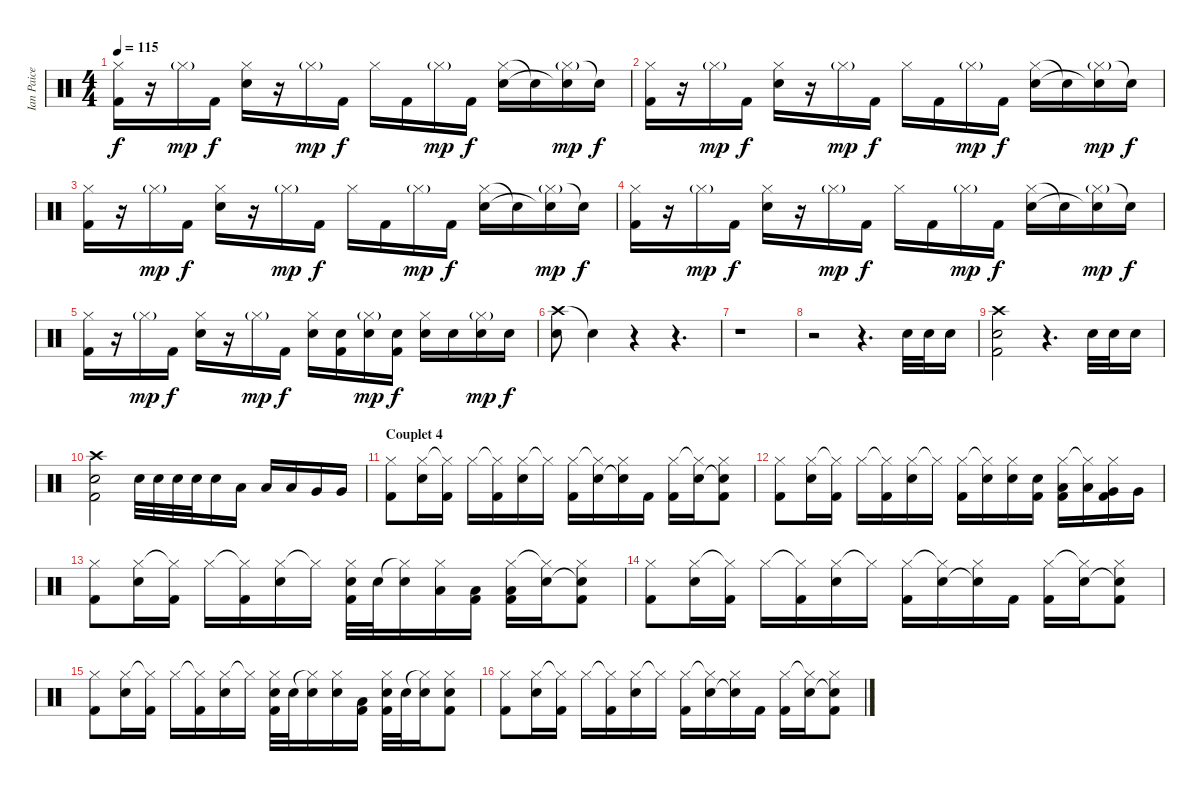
\track ("Ian Paice" "Ian Paice") {instrument percussion}
\staff {score}
\articulation defaults
\ts (4 4)
\tempo 115
\clef neutral
\ks c
("Hi-Hat (closed)" "Kick (hit) 2").16{dy f} r.16 "Hi-Hat (closed)"{g}.16{dy mp} "Kick (hit) 2".16{dy f} ("Hi-Hat (closed)" "Snare (hit) 2").16 r.16 "Hi-Hat (closed)"{g}.16{dy mp} "Kick (hit) 2".16{dy f} "Hi-Hat (closed)".16 "Kick (hit) 2".16 "Hi-Hat (closed)"{g}.16{dy mp} "Kick (hit) 2".16{dy f} ("Hi-Hat (closed)" "Snare (hit) 2").16 "Snare (hit) 2"{t}.16 ("Hi-Hat (closed)"{g} "Snare (hit) 2"{t}).16{dy mp} "Snare (hit) 2"{t}.16{dy f} |
("Hi-Hat (closed)" "Kick (hit) 2").16 r.16 "Hi-Hat (closed)"{g}.16{dy mp} "Kick (hit) 2".16{dy f} ("Hi-Hat (closed)" "Snare (hit) 2").16 r.16 "Hi-Hat (closed)"{g}.16{dy mp} "Kick (hit) 2".16{dy f} "Hi-Hat (closed)".16 "Kick (hit) 2".16 "Hi-Hat (closed)"{g}.16{dy mp} "Kick (hit) 2".16{dy f} ("Hi-Hat (closed)" "Snare (hit) 2").16 "Snare (hit) 2"{t}.16 ("Hi-Hat (closed)"{g} "Snare (hit) 2"{t}).16{dy mp} "Snare (hit) 2"{t}.16{dy f} |
("Hi-Hat (closed)" "Kick (hit) 2").16 r.16 "Hi-Hat (closed)"{g}.16{dy mp} "Kick (hit) 2".16{dy f} ("Hi-Hat (closed)" "Snare (hit) 2").16 r.16 "Hi-Hat (closed)"{g}.16{dy mp} "Kick (hit) 2".16{dy f} "Hi-Hat (closed)".16 "Kick (hit) 2".16 "Hi-Hat (closed)"{g}.16{dy mp} "Kick (hit) 2".16{dy f} ("Hi-Hat (closed)" "Snare (hit) 2").16 "Snare (hit) 2"{t}.16 ("Hi-Hat (closed)"{g} "Snare (hit) 2"{t}).16{dy mp} "Snare (hit) 2"{t}.16{dy f} |
("Hi-Hat (closed)" "Kick (hit) 2").16 r.16 "Hi-Hat (closed)"{g}.16{dy mp} "Kick (hit) 2".16{dy f} ("Hi-Hat (closed)" "Snare (hit) 2").16 r.16 "Hi-Hat (closed)"{g}.16{dy mp} "Kick (hit) 2".16{dy f} "Hi-Hat (closed)".16 "Kick (hit) 2".16 "Hi-Hat (closed)"{g}.16{dy mp} "Kick (hit) 2".16{dy f} ("Hi-Hat (closed)" "Snare (hit) 2").16 "Snare (hit) 2"{t}.16 ("Hi-Hat (closed)"{g} "Snare (hit) 2"{t}).16{dy mp} "Snare (hit) 2"{t}.16{dy f} |
("Hi-Hat (closed)" "Kick (hit) 2").16 r.16 "Hi-Hat (closed)"{g}.16{dy mp} "Kick (hit) 2".16{dy f} ("Hi-Hat (closed)" "Snare (hit) 2").16 r.16 "Hi-Hat (closed)"{g}.16{dy mp} "Kick (hit) 2".16{dy f} ("Hi-Hat (closed)" "Snare (hit) 2").16 ("Snare (hit) 2" "Kick (hit) 2").16 ("Hi-Hat (closed)"{g} "Snare (hit) 2").16{dy mp} ("Snare (hit) 2" "Kick (hit) 2").16{dy f} ("Hi-Hat (closed)" "Snare (hit) 2").16 "Snare (hit) 2".16 ("Hi-Hat (closed)"{g} "Snare (hit) 2").16{dy mp} "Snare (hit) 2".16{dy f} |
("Crash high (hit)" "Snare (hit) 2").8 "Snare (hit)"{t}.4 r.4 r.4{d} |
r.1 |
r.2 r.4{d} "Snare (hit) 2".32 "Snare (hit) 2".32 "Snare (hit) 2".16 |
("Crash high (hit)" "Snare (hit) 2" "Kick (hit) 2").2 r.4{d} "Snare (hit) 2".32 "Snare (hit) 2".32 "Snare (hit) 2".16 |
("Crash high (hit)" "Snare (hit) 2" "Kick (hit) 2").2 "Snare (hit) 2".32 "Snare (hit) 2".32 "Snare (hit) 2".32 "Snare (hit) 2".32 "Snare (hit) 2".16 "Low Tom (hit)".16 "Low Tom (hit)".16 "Low Tom (hit)".16 "Very Low Tom (hit)".16 "Very Low Tom (hit)".16 |
\section ("" "Couplet 4")
("Hi-Hat (closed)" "Kick (hit) 2").8 ("Hi-Hat (closed)" "Snare (hit) 2").16 ("Hi-Hat (closed)"{t} "Kick (hit) 2").16 "Hi-Hat (closed)".16 ("Hi-Hat (closed)"{t} "Kick (hit) 2").16 ("Hi-Hat (closed)" "Snare (hit) 2").16 "Hi-Hat (closed)"{t}.16 ("Hi-Hat (closed)" "Kick (hit) 2").16 ("Hi-Hat (closed)"{t} "Snare (hit) 2").16 ("Hi-Hat (closed)" "Snare (hit) 2"{t}).16 "Kick (hit) 2".16 ("Hi-Hat (closed)" "Kick (hit) 2").16 ("Hi-Hat (closed)"{t} "Snare (hit) 2").16 ("Hi-Hat (closed)" "Snare (hit) 2"{t} "Kick (hit) 2").8 |
("Hi-Hat (closed)" "Kick (hit) 2").8 ("Hi-Hat (closed)" "Snare (hit) 2").16 ("Hi-Hat (closed)"{t} "Kick (hit) 2").16 "Hi-Hat (closed)".16 ("Hi-Hat (closed)"{t} "Kick (hit) 2").16 ("Hi-Hat (closed)" "Snare (hit) 2").16 "Hi-Hat (closed)"{t}.16 ("Hi-Hat (closed)" "Kick (hit) 2").16 ("Hi-Hat (closed)"{t} "Snare (hit) 2").16 ("Hi-Hat (closed)" "Snare (hit) 2").16 ("Snare (hit) 2" "Kick (hit) 2").16 ("Hi-Hat (closed)" "Low Tom (hit)" "Kick (hit) 2").16 ("Hi-Hat (closed)"{t} "Low Tom (hit)").16 ("Hi-Hat (closed)" "Very Low Tom (hit)" "Kick (hit) 2").16 "Very Low Tom (hit)".16 |
("Hi-Hat (closed)" "Kick (hit) 2").8 ("Hi-Hat (closed)" "Snare (hit) 2").16 ("Hi-Hat (closed)"{t} "Kick (hit) 2").16 "Hi-Hat (closed)".16 ("Hi-Hat (closed)"{t} "Kick (hit) 2").16 ("Hi-Hat (closed)" "Snare (hit) 2").16 "Hi-Hat (closed)"{t}.16 ("Hi-Hat (closed)" "Snare (hit) 2" "Kick (hit) 2").32 "Snare (hit) 2".32 ("Hi-Hat (closed)"{t} "Snare (hit) 2").16 ("Hi-Hat (closed)" "Low Tom (hit)").16 ("Low Tom (hit)" "Kick (hit) 2").16 ("Hi-Hat (closed)" "Low Tom (hit)" "Kick (hit) 2").16 ("Hi-Hat (closed)"{t} "Snare (hit) 2").16 ("Hi-Hat (closed)" "Snare (hit) 2"{t} "Kick (hit) 2").8 |
("Hi-Hat (closed)" "Kick (hit) 2").8 ("Hi-Hat (closed)" "Snare (hit) 2").16 ("Hi-Hat (closed)"{t} "Kick (hit) 2").16 "Hi-Hat (closed)".16 ("Hi-Hat (closed)"{t} "Kick (hit) 2").16 ("Hi-Hat (closed)" "Snare (hit) 2").16 "Hi-Hat (closed)"{t}.16 ("Hi-Hat (closed)" "Kick (hit) 2").16 ("Hi-Hat (closed)"{t} "Snare (hit) 2").16 ("Hi-Hat (closed)" "Snare (hit) 2"{t}).16 "Kick (hit) 2".16 ("Hi-Hat (closed)" "Kick (hit) 2").16 ("Hi-Hat (closed)"{t} "Snare (hit) 2").16 ("Hi-Hat (closed)" "Snare (hit) 2"{t} "Kick (hit) 2").8 |
("Hi-Hat (closed)" "Kick (hit) 2").8 ("Hi-Hat (closed)" "Snare (hit) 2").16 ("Hi-Hat (closed)"{t} "Kick (hit) 2").16 "Hi-Hat (closed)".16 ("Hi-Hat (closed)"{t} "Kick (hit) 2").16 ("Hi-Hat (closed)" "Snare (hit) 2").16 "Hi-Hat (closed)"{t}.16 ("Hi-Hat (closed)" "Snare (hit) 2" "Kick (hit) 2").32 "Snare (hit) 2".32 ("Hi-Hat (closed)"{t} "Snare (hit) 2").16 ("Hi-Hat (closed)" "Snare (hit) 2").16 ("Low Tom (hit)" "Kick (hit) 2").16 ("Hi-Hat (closed)" "Snare (hit) 2" "Kick (hit) 2").32 "Snare (hit) 2".32 ("Hi-Hat (closed)"{t} "Snare (hit) 2").16 ("Hi-Hat (closed)" "Snare (hit) 2" "Kick (hit) 2").8 |
("Hi-Hat (closed)" "Kick (hit) 2").8 ("Hi-Hat (closed)" "Snare (hit) 2").16 ("Hi-Hat (closed)"{t} "Kick (hit) 2").16 "Hi-Hat (closed)".16 ("Hi-Hat (closed)"{t} "Kick (hit) 2").16 ("Hi-Hat (closed)" "Snare (hit) 2").16 "Hi-Hat (closed)"{t}.16 ("Hi-Hat (closed)" "Kick (hit) 2").16 ("Hi-Hat (closed)"{t} "Snare (hit) 2").16 ("Hi-Hat (closed)" "Snare (hit) 2"{t}).16 "Kick (hit) 2".16 ("Hi-Hat (closed)" "Kick (hit) 2").16 ("Hi-Hat (closed)"{t} "Snare (hit) 2").16 ("Hi-Hat (closed)" "Snare (hit) 2"{t} "Kick (hit) 2").8
